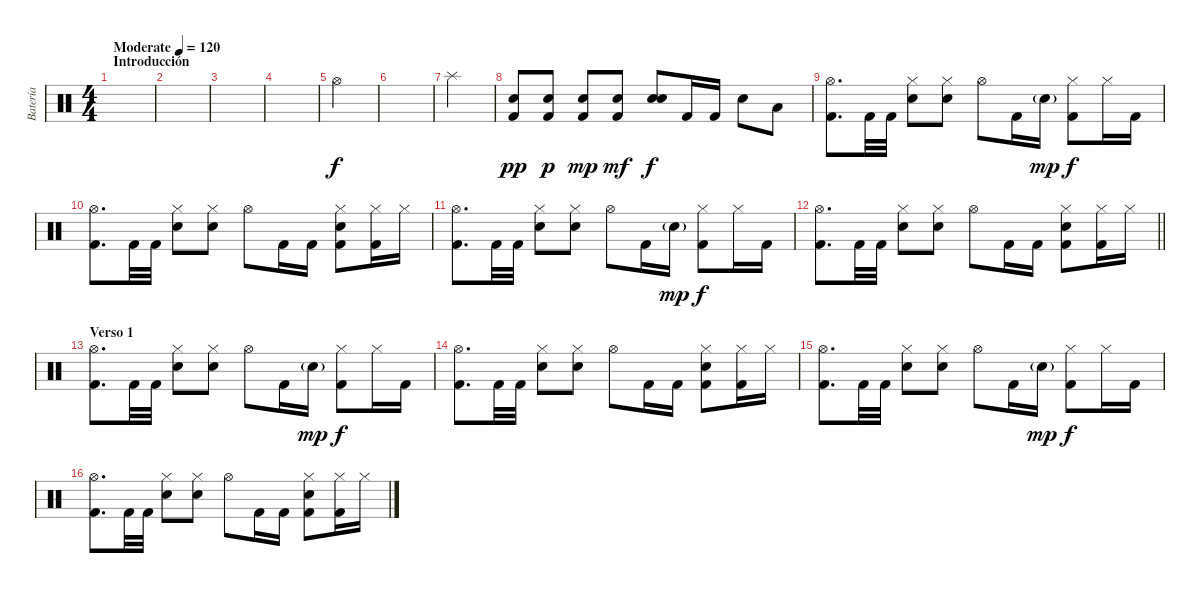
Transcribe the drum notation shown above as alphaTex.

\track ("Batería" "Batería") {instrument percussion}
\staff {score}
\articulation defaults
\ts (4 4)
\section ("" "Introducción")
\tempo (120 "Moderate")
\clef neutral
\ks c
|
|
|
|
"Hi-Hat (open)".4 |
|
"Splash (hit)".4 |
("Snare (hit) 2" "Kick (hit) 2").8{dy pp} ("Snare (hit) 2" "Kick (hit) 2").8{dy p} ("Snare (hit) 2" "Kick (hit) 2").8{dy mp} ("Snare (hit) 2" "Kick (hit) 2").8{dy mf} ("Snare (hit) 2" "Snare (hit) 2").8{dy f} "Kick (hit) 2".16 "Kick (hit) 2".16 "Snare (hit) 2".8 "Low Tom (hit)".8 |
("Hi-Hat (open)" "Kick (hit) 2").8{d} "Kick (hit) 2".32 "Kick (hit) 2".32 ("Hi-Hat (closed)" "Electric Snare (hit)").8 ("Hi-Hat (closed)" "Electric Snare (hit)").8 "Hi-Hat (open)".8 "Kick (hit) 2".16 "Electric Snare (hit)"{g}.16{dy mp} ("Hi-Hat (closed)" "Kick (hit) 2").8{dy f} "Hi-Hat (closed)".16 "Kick (hit) 2".16 |
("Hi-Hat (open)" "Kick (hit) 2").8{d} "Kick (hit) 2".32 "Kick (hit) 2".32 ("Hi-Hat (closed)" "Electric Snare (hit)").8 ("Hi-Hat (closed)" "Electric Snare (hit)").8 "Hi-Hat (open)".8 "Kick (hit) 2".16 "Kick (hit) 2".16 ("Hi-Hat (closed)" "Electric Snare (hit)" "Kick (hit) 2").8 ("Hi-Hat (closed)" "Kick (hit) 2").16 "Hi-Hat (closed)".16 |
("Hi-Hat (open)" "Kick (hit) 2").8{d} "Kick (hit) 2".32 "Kick (hit) 2".32 ("Hi-Hat (closed)" "Electric Snare (hit)").8 ("Hi-Hat (closed)" "Electric Snare (hit)").8 "Hi-Hat (open)".8 "Kick (hit) 2".16 "Electric Snare (hit)"{g}.16{dy mp} ("Hi-Hat (closed)" "Kick (hit) 2").8{dy f} "Hi-Hat (closed)".16 "Kick (hit) 2".16 |
\barLineRight lightlight
("Hi-Hat (open)" "Kick (hit) 2").8{d} "Kick (hit) 2".32 "Kick (hit) 2".32 ("Hi-Hat (closed)" "Electric Snare (hit)").8 ("Hi-Hat (closed)" "Electric Snare (hit)").8 "Hi-Hat (open)".8 "Kick (hit) 2".16 "Kick (hit) 2".16 ("Hi-Hat (closed)" "Electric Snare (hit)" "Kick (hit) 2").8 ("Hi-Hat (closed)" "Kick (hit) 2").16 "Hi-Hat (closed)".16 |
\section ("" "Verso 1")
("Hi-Hat (open)" "Kick (hit) 2").8{d} "Kick (hit) 2".32 "Kick (hit) 2".32 ("Hi-Hat (closed)" "Electric Snare (hit)").8 ("Hi-Hat (closed)" "Electric Snare (hit)").8 "Hi-Hat (open)".8 "Kick (hit) 2".16 "Electric Snare (hit)"{g}.16{dy mp} ("Hi-Hat (closed)" "Kick (hit) 2").8{dy f} "Hi-Hat (closed)".16 "Kick (hit) 2".16 |
("Hi-Hat (open)" "Kick (hit) 2").8{d} "Kick (hit) 2".32 "Kick (hit) 2".32 ("Hi-Hat (closed)" "Electric Snare (hit)").8 ("Hi-Hat (closed)" "Electric Snare (hit)").8 "Hi-Hat (open)".8 "Kick (hit) 2".16 "Kick (hit) 2".16 ("Hi-Hat (closed)" "Electric Snare (hit)" "Kick (hit) 2").8 ("Hi-Hat (closed)" "Kick (hit) 2").16 "Hi-Hat (closed)".16 |
("Hi-Hat (open)" "Kick (hit) 2").8{d} "Kick (hit) 2".32 "Kick (hit) 2".32 ("Hi-Hat (closed)" "Electric Snare (hit)").8 ("Hi-Hat (closed)" "Electric Snare (hit)").8 "Hi-Hat (open)".8 "Kick (hit) 2".16 "Electric Snare (hit)"{g}.16{dy mp} ("Hi-Hat (closed)" "Kick (hit) 2").8{dy f} "Hi-Hat (closed)".16 "Kick (hit) 2".16 |
("Hi-Hat (open)" "Kick (hit) 2").8{d} "Kick (hit) 2".32 "Kick (hit) 2".32 ("Hi-Hat (closed)" "Electric Snare (hit)").8 ("Hi-Hat (closed)" "Electric Snare (hit)").8 "Hi-Hat (open)".8 "Kick (hit) 2".16 "Kick (hit) 2".16 ("Hi-Hat (closed)" "Electric Snare (hit)" "Kick (hit) 2").8 ("Hi-Hat (closed)" "Kick (hit) 2").16 "Hi-Hat (closed)".16
